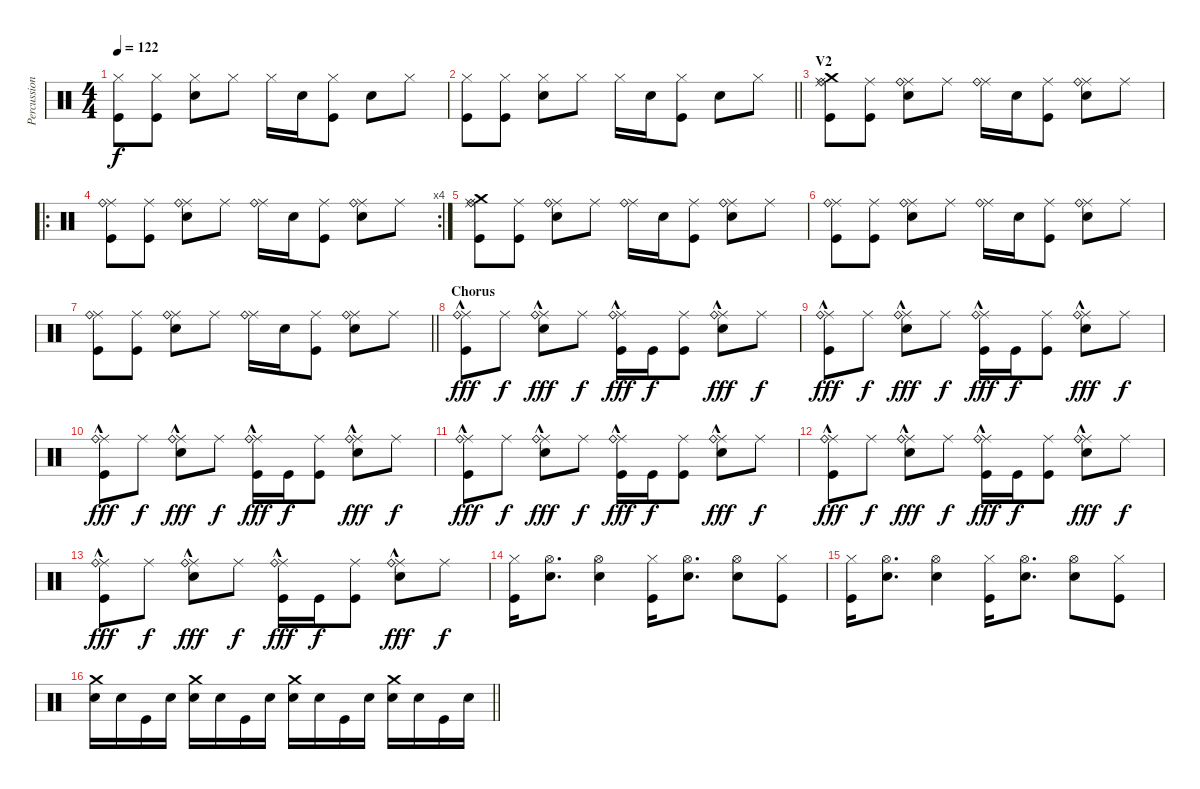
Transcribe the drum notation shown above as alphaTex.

\track ("Percussion" "Percussion") {instrument percussion}
\staff {score}
\articulation defaults
\ts (4 4)
\tempo 122
\clef neutral
\ks c
("Hi-Hat (closed)" "Kick (hit)").8{dy f} ("Hi-Hat (closed)" "Kick (hit)").8 ("Hi-Hat (closed)" "Snare (hit) 2").8 "Hi-Hat (closed)".8 "Hi-Hat (closed)".16 "Snare (hit) 2".16 ("Hi-Hat (closed)" "Kick (hit)").8 "Snare (hit) 2".8 "Hi-Hat (closed)".8 |
\barLineRight lightlight
("Hi-Hat (closed)" "Kick (hit)").8 ("Hi-Hat (closed)" "Kick (hit)").8 ("Hi-Hat (closed)" "Snare (hit) 2").8 "Hi-Hat (closed)".8 "Hi-Hat (closed)".16 "Snare (hit) 2".16 ("Hi-Hat (closed)" "Kick (hit)").8 "Snare (hit) 2".8 "Hi-Hat (closed)".8 |
\section ("" "V2")
("Ride (middle)" "Ride (bell)" "Crash medium (hit)" "Kick (hit)").8 ("Ride (middle)" "Kick (hit)").8 ("Ride (middle)" "Ride (bell)" "Snare (hit) 2").8 "Ride (middle)".8 ("Ride (middle)" "Ride (bell)").16 "Snare (hit) 2".16 ("Ride (middle)" "Kick (hit)").8 ("Ride (middle)" "Ride (bell)" "Snare (hit) 2").8 "Ride (middle)".8 |
\ro
\rc 4
("Ride (middle)" "Ride (bell)" "Kick (hit)").8 ("Ride (middle)" "Kick (hit)").8 ("Ride (middle)" "Ride (bell)" "Snare (hit) 2").8 "Ride (middle)".8 ("Ride (middle)" "Ride (bell)").16 "Snare (hit) 2".16 ("Ride (middle)" "Kick (hit)").8 ("Ride (middle)" "Ride (bell)" "Snare (hit) 2").8 "Ride (middle)".8 |
("Ride (middle)" "Ride (bell)" "Crash medium (hit)" "Kick (hit)").8 ("Ride (middle)" "Kick (hit)").8 ("Ride (middle)" "Ride (bell)" "Snare (hit) 2").8 "Ride (middle)".8 ("Ride (middle)" "Ride (bell)").16 "Snare (hit) 2".16 ("Ride (middle)" "Kick (hit)").8 ("Ride (middle)" "Ride (bell)" "Snare (hit) 2").8 "Ride (middle)".8 |
("Ride (middle)" "Ride (bell)" "Kick (hit)").8 ("Ride (middle)" "Kick (hit)").8 ("Ride (middle)" "Ride (bell)" "Snare (hit) 2").8 "Ride (middle)".8 ("Ride (middle)" "Ride (bell)").16 "Snare (hit) 2".16 ("Ride (middle)" "Kick (hit)").8 ("Ride (middle)" "Ride (bell)" "Snare (hit) 2").8 "Ride (middle)".8 |
\barLineRight lightlight
("Ride (middle)" "Ride (bell)" "Kick (hit)").8 ("Ride (middle)" "Kick (hit)").8 ("Ride (middle)" "Ride (bell)" "Snare (hit) 2").8 "Ride (middle)".8 ("Ride (middle)" "Ride (bell)").16 "Snare (hit) 2".16 ("Ride (middle)" "Kick (hit)").8 ("Ride (middle)" "Ride (bell)" "Snare (hit) 2").8 "Ride (middle)".8 |
\section ("" "Chorus")
("Ride (middle)" "Ride (bell)"{hac} "Kick (hit)").8{dy fff} "Ride (middle)".8{dy f} ("Ride (middle)" "Ride (bell)"{hac} "Snare (hit) 2").8{dy fff} "Ride (middle)".8{dy f} ("Ride (middle)" "Ride (bell)"{hac} "Kick (hit)").16{dy fff} "Kick (hit)".16{dy f} ("Ride (middle)" "Kick (hit)").8 ("Ride (middle)" "Ride (bell)"{hac} "Snare (hit) 2").8{dy fff} "Ride (middle)".8{dy f} |
("Ride (middle)" "Ride (bell)"{hac} "Kick (hit)").8{dy fff} "Ride (middle)".8{dy f} ("Ride (middle)" "Ride (bell)"{hac} "Snare (hit) 2").8{dy fff} "Ride (middle)".8{dy f} ("Ride (middle)" "Ride (bell)"{hac} "Kick (hit)").16{dy fff} "Kick (hit)".16{dy f} ("Ride (middle)" "Kick (hit)").8 ("Ride (middle)" "Ride (bell)"{hac} "Snare (hit) 2").8{dy fff} "Ride (middle)".8{dy f} |
("Ride (middle)" "Ride (bell)"{hac} "Kick (hit)").8{dy fff} "Ride (middle)".8{dy f} ("Ride (middle)" "Ride (bell)"{hac} "Snare (hit) 2").8{dy fff} "Ride (middle)".8{dy f} ("Ride (middle)" "Ride (bell)"{hac} "Kick (hit)").16{dy fff} "Kick (hit)".16{dy f} ("Ride (middle)" "Kick (hit)").8 ("Ride (middle)" "Ride (bell)"{hac} "Snare (hit) 2").8{dy fff} "Ride (middle)".8{dy f} |
("Ride (middle)" "Ride (bell)"{hac} "Kick (hit)").8{dy fff} "Ride (middle)".8{dy f} ("Ride (middle)" "Ride (bell)"{hac} "Snare (hit) 2").8{dy fff} "Ride (middle)".8{dy f} ("Ride (middle)" "Ride (bell)"{hac} "Kick (hit)").16{dy fff} "Kick (hit)".16{dy f} ("Ride (middle)" "Kick (hit)").8 ("Ride (middle)" "Ride (bell)"{hac} "Snare (hit) 2").8{dy fff} "Ride (middle)".8{dy f} |
("Ride (middle)" "Ride (bell)"{hac} "Kick (hit)").8{dy fff} "Ride (middle)".8{dy f} ("Ride (middle)" "Ride (bell)"{hac} "Snare (hit) 2").8{dy fff} "Ride (middle)".8{dy f} ("Ride (middle)" "Ride (bell)"{hac} "Kick (hit)").16{dy fff} "Kick (hit)".16{dy f} ("Ride (middle)" "Kick (hit)").8 ("Ride (middle)" "Ride (bell)"{hac} "Snare (hit) 2").8{dy fff} "Ride (middle)".8{dy f} |
("Ride (middle)" "Ride (bell)"{hac} "Kick (hit)").8{dy fff} "Ride (middle)".8{dy f} ("Ride (middle)" "Ride (bell)"{hac} "Snare (hit) 2").8{dy fff} "Ride (middle)".8{dy f} ("Ride (middle)" "Ride (bell)"{hac} "Kick (hit)").16{dy fff} "Kick (hit)".16{dy f} ("Ride (middle)" "Kick (hit)").8 ("Ride (middle)" "Ride (bell)"{hac} "Snare (hit) 2").8{dy fff} "Ride (middle)".8{dy f} |
("Hi-Hat (closed)" "Kick (hit)").16 ("Hi-Hat (open)" "Snare (hit) 2").8{d} ("Hi-Hat (open)" "Snare (hit) 2").4 ("Hi-Hat (closed)" "Kick (hit)").16 ("Hi-Hat (open)" "Snare (hit) 2").8{d} ("Hi-Hat (open)" "Snare (hit) 2").8 ("Hi-Hat (closed)" "Kick (hit)").8 |
("Hi-Hat (closed)" "Kick (hit)").16 ("Hi-Hat (open)" "Snare (hit) 2").8{d} ("Hi-Hat (open)" "Snare (hit) 2").4 ("Hi-Hat (closed)" "Kick (hit)").16 ("Hi-Hat (open)" "Snare (hit) 2").8{d} ("Hi-Hat (open)" "Snare (hit) 2").8 ("Hi-Hat (closed)" "Kick (hit)").8 |
\barLineRight lightlight
("Crash medium (hit)" "Snare (hit) 2").16 "Snare (hit) 2".16 "Kick (hit)".16 "Snare (hit) 2".16 ("Crash medium (hit)" "Snare (hit) 2").16 "Snare (hit) 2".16 "Kick (hit)".16 "Snare (hit) 2".16 ("Crash medium (hit)" "Snare (hit) 2").16 "Snare (hit) 2".16 "Kick (hit)".16 "Snare (hit) 2".16 ("Crash medium (hit)" "Snare (hit) 2").16 "Snare (hit) 2".16 "Kick (hit)".16 "Snare (hit) 2".16
